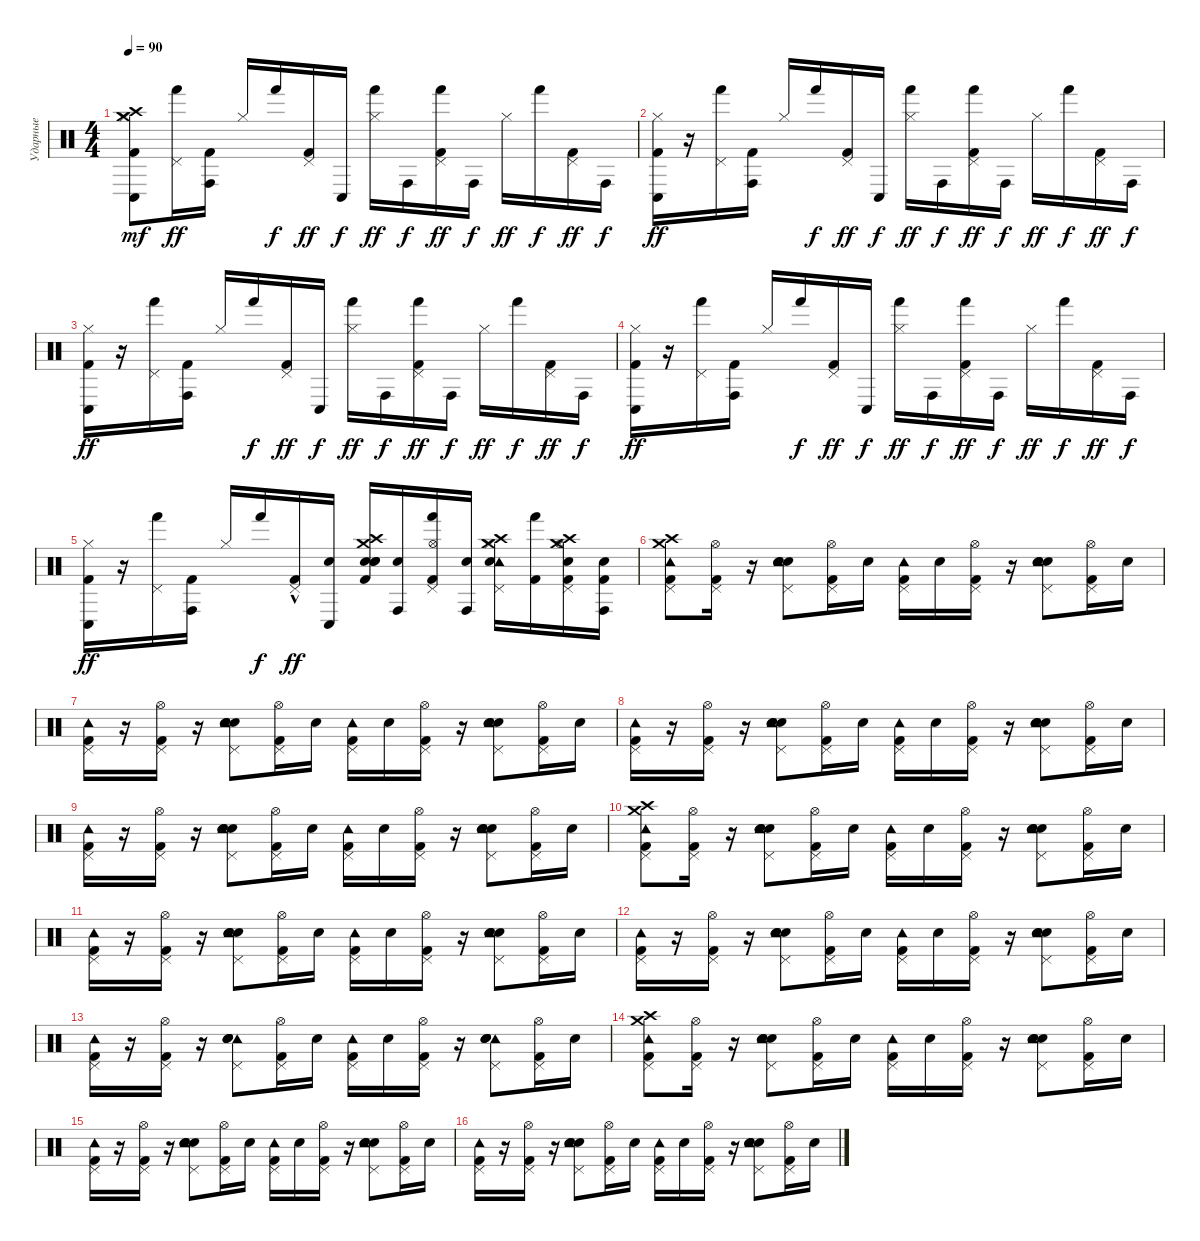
\track ("Ударные" "Ударные") {instrument percussion}
\staff {score}
\articulation defaults
\ts (4 4)
\tempo 90
\clef neutral
\ks c
("Hi-Hat (closed)" "Conga low (hit)" "Kick (hit) 2" "Crash high (hit)" "Crash medium (hit)").8{dy mf} ("Hand (hit)" "Pedal Hi-Hat (hit)").16{dy ff} ("Conga high (hit)" "Kick (hit) 2").16 "Hi-Hat (closed)".16 "Hand (hit)".16{dy f} ("Pedal Hi-Hat (hit)" "Kick (hit) 2").16{dy ff} "Conga low (hit)".16{dy f} ("Hi-Hat (closed)" "Hand (hit)").16{dy ff} "Conga high (hit)".16{dy f} ("Kick (hit) 2" "Hand (hit)" "Pedal Hi-Hat (hit)").16{dy ff} "Conga high (hit)".16{dy f} "Hi-Hat (closed)".16{dy ff} "Hand (hit)".16{dy f} ("Pedal Hi-Hat (hit)" "Kick (hit) 2").16{dy ff} "Conga high (hit)".16{dy f} |
("Hi-Hat (closed)" "Conga low (hit)" "Kick (hit) 2").16{dy ff} r.16 ("Hand (hit)" "Pedal Hi-Hat (hit)").16 ("Conga high (hit)" "Kick (hit) 2").16 "Hi-Hat (closed)".16 "Hand (hit)".16{dy f} ("Pedal Hi-Hat (hit)" "Kick (hit) 2").16{dy ff} "Conga low (hit)".16{dy f} ("Hi-Hat (closed)" "Hand (hit)").16{dy ff} "Conga high (hit)".16{dy f} ("Kick (hit) 2" "Hand (hit)" "Pedal Hi-Hat (hit)").16{dy ff} "Conga high (hit)".16{dy f} "Hi-Hat (closed)".16{dy ff} "Hand (hit)".16{dy f} ("Pedal Hi-Hat (hit)" "Kick (hit) 2").16{dy ff} "Conga high (hit)".16{dy f} |
("Hi-Hat (closed)" "Conga low (hit)" "Kick (hit) 2").16{dy ff} r.16 ("Hand (hit)" "Pedal Hi-Hat (hit)").16 ("Conga high (hit)" "Kick (hit) 2").16 "Hi-Hat (closed)".16 "Hand (hit)".16{dy f} ("Pedal Hi-Hat (hit)" "Kick (hit) 2").16{dy ff} "Conga low (hit)".16{dy f} ("Hi-Hat (closed)" "Hand (hit)").16{dy ff} "Conga high (hit)".16{dy f} ("Kick (hit) 2" "Hand (hit)" "Pedal Hi-Hat (hit)").16{dy ff} "Conga high (hit)".16{dy f} "Hi-Hat (closed)".16{dy ff} "Hand (hit)".16{dy f} ("Pedal Hi-Hat (hit)" "Kick (hit) 2").16{dy ff} "Conga high (hit)".16{dy f} |
("Hi-Hat (closed)" "Conga low (hit)" "Kick (hit) 2").16{dy ff} r.16 ("Hand (hit)" "Pedal Hi-Hat (hit)").16 ("Conga high (hit)" "Kick (hit) 2").16 "Hi-Hat (closed)".16 "Hand (hit)".16{dy f} ("Pedal Hi-Hat (hit)" "Kick (hit) 2").16{dy ff} "Conga low (hit)".16{dy f} ("Hi-Hat (closed)" "Hand (hit)").16{dy ff} "Conga high (hit)".16{dy f} ("Kick (hit) 2" "Hand (hit)" "Pedal Hi-Hat (hit)").16{dy ff} "Conga high (hit)".16{dy f} "Hi-Hat (closed)".16{dy ff} "Hand (hit)".16{dy f} ("Pedal Hi-Hat (hit)" "Kick (hit) 2").16{dy ff} "Conga high (hit)".16{dy f} |
("Hi-Hat (closed)" "Conga low (hit)" "Kick (hit) 2").16{dy ff} r.16 ("Hand (hit)" "Pedal Hi-Hat (hit)").16 ("Conga high (hit)" "Kick (hit) 2").16 "Hi-Hat (closed)".16 "Hand (hit)".16{dy f} ("Pedal Hi-Hat (hit)"{hac} "Kick (hit) 2").16{dy ff} ("Electric Snare (hit)" "Conga low (hit)").16 ("Electric Snare (hit)" "Electric Snare (hit)" "Kick (hit) 2" "Crash high (hit)" "Crash medium (hit)" "Electric Snare (hit)").16 ("Electric Snare (hit)" "Conga high (hit)").16 ("Kick (hit) 2" "Hi-Hat (open)" "Pedal Hi-Hat (hit)" "Hand (hit)").16 ("Electric Snare (hit)" "Conga high (hit)").16 ("Crash high (hit)" "Crash medium (hit)" "Tambourine (hit)" "Pedal Hi-Hat (hit)" "Electric Snare (hit)" "Hi-Hat (closed)").16 ("Kick (hit) 2" "Hand (hit)").16 ("Kick (hit) 2" "Hi-Hat (open)" "Pedal Hi-Hat (hit)" "Crash high (hit)" "Crash medium (hit)" "Electric Snare (hit)").16 ("Kick (hit) 2" "Electric Snare (hit)" "Conga high (hit)").16 |
("Kick (hit) 2" "Tambourine (hit)" "Crash high (hit)" "Crash medium (hit)" "Pedal Hi-Hat (hit)").8 ("Kick (hit) 2" "Hi-Hat (open)" "Pedal Hi-Hat (hit)").16 r.16 ("Electric Snare (hit)" "Snare (hit) 2" "Hand Clap (hit)" "Tambourine (hit)" "Pedal Hi-Hat (hit)").8 ("Kick (hit) 2" "Hi-Hat (open)" "Pedal Hi-Hat (hit)").16 "Snare (hit) 2".16 ("Kick (hit) 2" "Tambourine (hit)" "Pedal Hi-Hat (hit)").16 "Snare (hit) 2".16 ("Kick (hit) 2" "Hi-Hat (open)" "Pedal Hi-Hat (hit)").16 r.16 ("Electric Snare (hit)" "Snare (hit) 2" "Hand Clap (hit)" "Tambourine (hit)" "Pedal Hi-Hat (hit)").8 ("Kick (hit) 2" "Hi-Hat (open)" "Pedal Hi-Hat (hit)").16 "Snare (hit) 2".16 |
("Kick (hit) 2" "Tambourine (hit)" "Pedal Hi-Hat (hit)").16 r.16 ("Kick (hit) 2" "Hi-Hat (open)" "Pedal Hi-Hat (hit)").16 r.16 ("Electric Snare (hit)" "Hand Clap (hit)" "Snare (hit) 2" "Tambourine (hit)" "Pedal Hi-Hat (hit)").8 ("Kick (hit) 2" "Hi-Hat (open)" "Pedal Hi-Hat (hit)").16 "Snare (hit) 2".16 ("Kick (hit) 2" "Tambourine (hit)" "Pedal Hi-Hat (hit)").16 "Snare (hit) 2".16 ("Kick (hit) 2" "Hi-Hat (open)" "Pedal Hi-Hat (hit)").16 r.16 ("Electric Snare (hit)" "Hand Clap (hit)" "Snare (hit) 2" "Tambourine (hit)" "Pedal Hi-Hat (hit)").8 ("Kick (hit) 2" "Hi-Hat (open)" "Pedal Hi-Hat (hit)").16 "Snare (hit) 2".16 |
("Kick (hit) 2" "Tambourine (hit)" "Pedal Hi-Hat (hit)").16 r.16 ("Kick (hit) 2" "Hi-Hat (open)" "Pedal Hi-Hat (hit)").16 r.16 ("Electric Snare (hit)" "Hand Clap (hit)" "Snare (hit) 2" "Tambourine (hit)" "Pedal Hi-Hat (hit)").8 ("Kick (hit) 2" "Hi-Hat (open)" "Pedal Hi-Hat (hit)").16 "Snare (hit) 2".16 ("Kick (hit) 2" "Tambourine (hit)" "Pedal Hi-Hat (hit)").16 "Snare (hit) 2".16 ("Kick (hit) 2" "Hi-Hat (open)" "Pedal Hi-Hat (hit)").16 r.16 ("Electric Snare (hit)" "Hand Clap (hit)" "Snare (hit) 2" "Tambourine (hit)" "Pedal Hi-Hat (hit)").8 ("Kick (hit) 2" "Hi-Hat (open)" "Pedal Hi-Hat (hit)").16 "Snare (hit) 2".16 |
("Kick (hit) 2" "Tambourine (hit)" "Pedal Hi-Hat (hit)").16 r.16 ("Kick (hit) 2" "Hi-Hat (open)" "Pedal Hi-Hat (hit)").16 r.16 ("Electric Snare (hit)" "Hand Clap (hit)" "Snare (hit) 2" "Tambourine (hit)" "Pedal Hi-Hat (hit)").8 ("Kick (hit) 2" "Hi-Hat (open)" "Pedal Hi-Hat (hit)").16 "Snare (hit) 2".16 ("Kick (hit) 2" "Tambourine (hit)" "Pedal Hi-Hat (hit)").16 "Snare (hit) 2".16 ("Kick (hit) 2" "Hi-Hat (open)" "Pedal Hi-Hat (hit)").16 r.16 ("Electric Snare (hit)" "Hand Clap (hit)" "Snare (hit) 2" "Tambourine (hit)" "Pedal Hi-Hat (hit)").8 ("Kick (hit) 2" "Hi-Hat (open)" "Pedal Hi-Hat (hit)").16 "Snare (hit) 2".16 |
("Kick (hit) 2" "Tambourine (hit)" "Crash high (hit)" "Crash medium (hit)" "Pedal Hi-Hat (hit)").8 ("Kick (hit) 2" "Hi-Hat (open)" "Pedal Hi-Hat (hit)").16 r.16 ("Electric Snare (hit)" "Snare (hit) 2" "Hand Clap (hit)" "Tambourine (hit)" "Pedal Hi-Hat (hit)").8 ("Kick (hit) 2" "Hi-Hat (open)" "Pedal Hi-Hat (hit)").16 "Snare (hit) 2".16 ("Kick (hit) 2" "Tambourine (hit)" "Pedal Hi-Hat (hit)").16 "Snare (hit) 2".16 ("Kick (hit) 2" "Hi-Hat (open)" "Pedal Hi-Hat (hit)").16 r.16 ("Electric Snare (hit)" "Snare (hit) 2" "Hand Clap (hit)" "Tambourine (hit)" "Pedal Hi-Hat (hit)").8 ("Kick (hit) 2" "Hi-Hat (open)" "Pedal Hi-Hat (hit)").16 "Snare (hit) 2".16 |
("Kick (hit) 2" "Tambourine (hit)" "Pedal Hi-Hat (hit)").16 r.16 ("Kick (hit) 2" "Hi-Hat (open)" "Pedal Hi-Hat (hit)").16 r.16 ("Electric Snare (hit)" "Hand Clap (hit)" "Snare (hit) 2" "Tambourine (hit)" "Pedal Hi-Hat (hit)").8 ("Kick (hit) 2" "Hi-Hat (open)" "Pedal Hi-Hat (hit)").16 "Snare (hit) 2".16 ("Kick (hit) 2" "Tambourine (hit)" "Pedal Hi-Hat (hit)").16 "Snare (hit) 2".16 ("Kick (hit) 2" "Hi-Hat (open)" "Pedal Hi-Hat (hit)").16 r.16 ("Electric Snare (hit)" "Hand Clap (hit)" "Snare (hit) 2" "Tambourine (hit)" "Pedal Hi-Hat (hit)").8 ("Kick (hit) 2" "Hi-Hat (open)" "Pedal Hi-Hat (hit)").16 "Snare (hit) 2".16 |
("Kick (hit) 2" "Tambourine (hit)" "Pedal Hi-Hat (hit)").16 r.16 ("Kick (hit) 2" "Hi-Hat (open)" "Pedal Hi-Hat (hit)").16 r.16 ("Electric Snare (hit)" "Hand Clap (hit)" "Snare (hit) 2" "Tambourine (hit)" "Pedal Hi-Hat (hit)").8 ("Kick (hit) 2" "Hi-Hat (open)" "Pedal Hi-Hat (hit)").16 "Snare (hit) 2".16 ("Kick (hit) 2" "Tambourine (hit)" "Pedal Hi-Hat (hit)").16 "Snare (hit) 2".16 ("Kick (hit) 2" "Hi-Hat (open)" "Pedal Hi-Hat (hit)").16 r.16 ("Electric Snare (hit)" "Hand Clap (hit)" "Snare (hit) 2" "Tambourine (hit)" "Pedal Hi-Hat (hit)").8 ("Kick (hit) 2" "Hi-Hat (open)" "Pedal Hi-Hat (hit)").16 "Snare (hit) 2".16 |
("Tambourine (hit)" "Pedal Hi-Hat (hit)" "Kick (hit) 2").16 r.16 ("Hi-Hat (open)" "Pedal Hi-Hat (hit)" "Kick (hit) 2").16 r.16 ("Tambourine (hit)" "Pedal Hi-Hat (hit)" "Electric Snare (hit)" "Hand Clap (hit)" "Snare (hit) 2").8 ("Hi-Hat (open)" "Pedal Hi-Hat (hit)" "Kick (hit) 2").16 "Snare (hit) 2".16 ("Tambourine (hit)" "Pedal Hi-Hat (hit)" "Kick (hit) 2").16 "Snare (hit) 2".16 ("Hi-Hat (open)" "Pedal Hi-Hat (hit)" "Kick (hit) 2").16 r.16 ("Tambourine (hit)" "Pedal Hi-Hat (hit)" "Electric Snare (hit)" "Hand Clap (hit)" "Snare (hit) 2").8 ("Hi-Hat (open)" "Pedal Hi-Hat (hit)" "Kick (hit) 2").16 "Snare (hit) 2".16 |
("Kick (hit) 2" "Tambourine (hit)" "Crash high (hit)" "Crash medium (hit)" "Pedal Hi-Hat (hit)").8 ("Kick (hit) 2" "Hi-Hat (open)" "Pedal Hi-Hat (hit)").16 r.16 ("Electric Snare (hit)" "Snare (hit) 2" "Hand Clap (hit)" "Tambourine (hit)" "Pedal Hi-Hat (hit)").8 ("Kick (hit) 2" "Hi-Hat (open)" "Pedal Hi-Hat (hit)").16 "Snare (hit) 2".16 ("Kick (hit) 2" "Tambourine (hit)" "Pedal Hi-Hat (hit)").16 "Snare (hit) 2".16 ("Kick (hit) 2" "Hi-Hat (open)" "Pedal Hi-Hat (hit)").16 r.16 ("Electric Snare (hit)" "Snare (hit) 2" "Hand Clap (hit)" "Tambourine (hit)" "Pedal Hi-Hat (hit)").8 ("Kick (hit) 2" "Hi-Hat (open)" "Pedal Hi-Hat (hit)").16 "Snare (hit) 2".16 |
("Kick (hit) 2" "Tambourine (hit)" "Pedal Hi-Hat (hit)").16 r.16 ("Kick (hit) 2" "Hi-Hat (open)" "Pedal Hi-Hat (hit)").16 r.16 ("Electric Snare (hit)" "Hand Clap (hit)" "Snare (hit) 2" "Tambourine (hit)" "Pedal Hi-Hat (hit)").8 ("Kick (hit) 2" "Hi-Hat (open)" "Pedal Hi-Hat (hit)").16 "Snare (hit) 2".16 ("Kick (hit) 2" "Tambourine (hit)" "Pedal Hi-Hat (hit)").16 "Snare (hit) 2".16 ("Kick (hit) 2" "Hi-Hat (open)" "Pedal Hi-Hat (hit)").16 r.16 ("Electric Snare (hit)" "Hand Clap (hit)" "Snare (hit) 2" "Tambourine (hit)" "Pedal Hi-Hat (hit)").8 ("Kick (hit) 2" "Hi-Hat (open)" "Pedal Hi-Hat (hit)").16 "Snare (hit) 2".16 |
("Kick (hit) 2" "Tambourine (hit)" "Pedal Hi-Hat (hit)").16 r.16 ("Kick (hit) 2" "Hi-Hat (open)" "Pedal Hi-Hat (hit)").16 r.16 ("Electric Snare (hit)" "Hand Clap (hit)" "Snare (hit) 2" "Tambourine (hit)" "Pedal Hi-Hat (hit)").8 ("Kick (hit) 2" "Hi-Hat (open)" "Pedal Hi-Hat (hit)").16 "Snare (hit) 2".16 ("Kick (hit) 2" "Tambourine (hit)" "Pedal Hi-Hat (hit)").16 "Snare (hit) 2".16 ("Kick (hit) 2" "Hi-Hat (open)" "Pedal Hi-Hat (hit)").16 r.16 ("Electric Snare (hit)" "Hand Clap (hit)" "Snare (hit) 2" "Tambourine (hit)" "Pedal Hi-Hat (hit)").8 ("Kick (hit) 2" "Hi-Hat (open)" "Pedal Hi-Hat (hit)").16 "Snare (hit) 2".16
